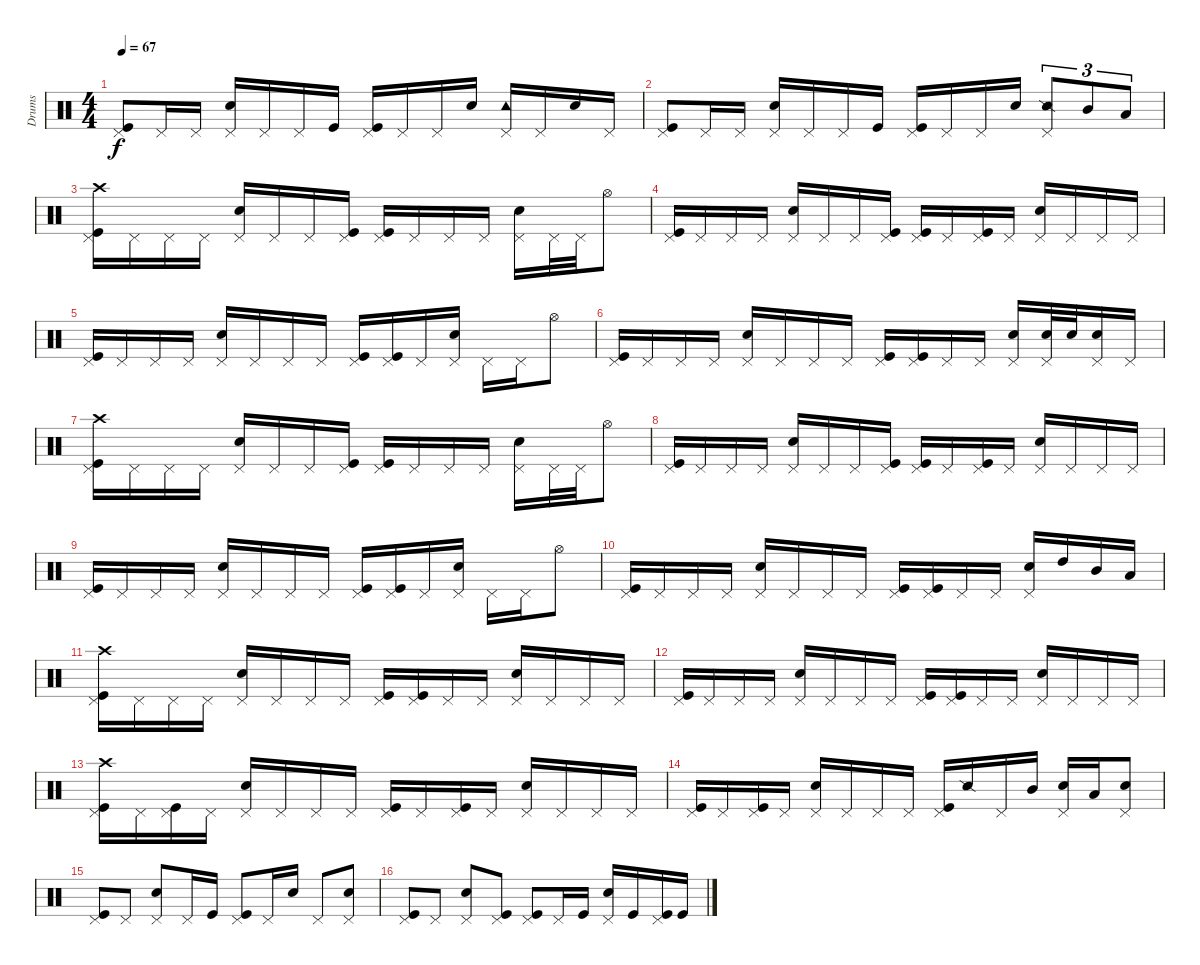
\track ("Drums" "Drums") {instrument percussion}
\staff {score}
\articulation defaults
\ts (4 4)
\tempo 67
\clef neutral
\ks c
("Kick (hit)" "Pedal Hi-Hat (hit)").8{dy f} "Pedal Hi-Hat (hit)".16 "Pedal Hi-Hat (hit)".16 ("Snare (hit) 2" "Pedal Hi-Hat (hit)").16 "Pedal Hi-Hat (hit)".16 "Pedal Hi-Hat (hit)".16 "Kick (hit)".16 ("Kick (hit)" "Pedal Hi-Hat (hit)").16 "Pedal Hi-Hat (hit)".16 "Pedal Hi-Hat (hit)".16 "Snare (hit) 2".16 ("Tambourine (hit)" "Pedal Hi-Hat (hit)").16 "Pedal Hi-Hat (hit)".16 "Snare (hit) 2".16 "Pedal Hi-Hat (hit)".16 |
("Kick (hit)" "Pedal Hi-Hat (hit)").8 "Pedal Hi-Hat (hit)".16 "Pedal Hi-Hat (hit)".16 ("Snare (hit) 2" "Pedal Hi-Hat (hit)").16 "Pedal Hi-Hat (hit)".16 "Pedal Hi-Hat (hit)".16 "Kick (hit)".16 ("Kick (hit)" "Pedal Hi-Hat (hit)").16 "Pedal Hi-Hat (hit)".16 "Pedal Hi-Hat (hit)".16 "Snare (hit) 2".16 ("Snare (side stick) 2" "Pedal Hi-Hat (hit)").8{tu (3 2)} "Mid Tom (hit)".8{tu (3 2)} "Low Tom (hit)".8{tu (3 2)} |
("Kick (hit)" "Pedal Hi-Hat (hit)" "Crash high (hit)").16 "Pedal Hi-Hat (hit)".16 "Pedal Hi-Hat (hit)".16 "Pedal Hi-Hat (hit)".16 ("Snare (hit) 2" "Pedal Hi-Hat (hit)").16 "Pedal Hi-Hat (hit)".16 "Pedal Hi-Hat (hit)".16 ("Kick (hit)" "Pedal Hi-Hat (hit)").16 ("Kick (hit)" "Pedal Hi-Hat (hit)").16 "Pedal Hi-Hat (hit)".16 "Pedal Hi-Hat (hit)".16 "Pedal Hi-Hat (hit)".16 ("Snare (hit) 2" "Pedal Hi-Hat (hit)").16 "Pedal Hi-Hat (hit)".32 "Pedal Hi-Hat (hit)".32 "Hi-Hat (open)".8 |
("Kick (hit)" "Pedal Hi-Hat (hit)").16 "Pedal Hi-Hat (hit)".16 "Pedal Hi-Hat (hit)".16 "Pedal Hi-Hat (hit)".16 ("Snare (hit) 2" "Pedal Hi-Hat (hit)").16 "Pedal Hi-Hat (hit)".16 "Pedal Hi-Hat (hit)".16 ("Kick (hit)" "Pedal Hi-Hat (hit)").16 ("Kick (hit)" "Pedal Hi-Hat (hit)").16 "Pedal Hi-Hat (hit)".16 ("Kick (hit)" "Pedal Hi-Hat (hit)").16 "Pedal Hi-Hat (hit)".16 ("Snare (hit) 2" "Pedal Hi-Hat (hit)").16 "Pedal Hi-Hat (hit)".16 "Pedal Hi-Hat (hit)".16 "Pedal Hi-Hat (hit)".16 |
("Kick (hit)" "Pedal Hi-Hat (hit)").16 "Pedal Hi-Hat (hit)".16 "Pedal Hi-Hat (hit)".16 "Pedal Hi-Hat (hit)".16 ("Snare (hit) 2" "Pedal Hi-Hat (hit)").16 "Pedal Hi-Hat (hit)".16 "Pedal Hi-Hat (hit)".16 "Pedal Hi-Hat (hit)".16 ("Kick (hit)" "Pedal Hi-Hat (hit)").16 ("Kick (hit)" "Pedal Hi-Hat (hit)").16 "Pedal Hi-Hat (hit)".16 ("Snare (hit) 2" "Pedal Hi-Hat (hit)").16 "Pedal Hi-Hat (hit)".16 "Pedal Hi-Hat (hit)".16 "Hi-Hat (open)".8 |
("Kick (hit)" "Pedal Hi-Hat (hit)").16 "Pedal Hi-Hat (hit)".16 "Pedal Hi-Hat (hit)".16 "Pedal Hi-Hat (hit)".16 ("Snare (hit) 2" "Pedal Hi-Hat (hit)").16 "Pedal Hi-Hat (hit)".16 "Pedal Hi-Hat (hit)".16 "Pedal Hi-Hat (hit)".16 ("Kick (hit)" "Pedal Hi-Hat (hit)").16 ("Kick (hit)" "Pedal Hi-Hat (hit)").16 "Pedal Hi-Hat (hit)".16 "Pedal Hi-Hat (hit)".16 ("Snare (hit) 2" "Pedal Hi-Hat (hit)").16 ("Snare (hit) 2" "Pedal Hi-Hat (hit)").32 "Snare (hit) 2".32 ("Snare (hit) 2" "Pedal Hi-Hat (hit)").16 "Pedal Hi-Hat (hit)".16 |
("Kick (hit)" "Pedal Hi-Hat (hit)" "Crash high (hit)").16 "Pedal Hi-Hat (hit)".16 "Pedal Hi-Hat (hit)".16 "Pedal Hi-Hat (hit)".16 ("Snare (hit) 2" "Pedal Hi-Hat (hit)").16 "Pedal Hi-Hat (hit)".16 "Pedal Hi-Hat (hit)".16 ("Kick (hit)" "Pedal Hi-Hat (hit)").16 ("Kick (hit)" "Pedal Hi-Hat (hit)").16 "Pedal Hi-Hat (hit)".16 "Pedal Hi-Hat (hit)".16 "Pedal Hi-Hat (hit)".16 ("Snare (hit) 2" "Pedal Hi-Hat (hit)").16 "Pedal Hi-Hat (hit)".32 "Pedal Hi-Hat (hit)".32 "Hi-Hat (open)".8 |
("Kick (hit)" "Pedal Hi-Hat (hit)").16 "Pedal Hi-Hat (hit)".16 "Pedal Hi-Hat (hit)".16 "Pedal Hi-Hat (hit)".16 ("Snare (hit) 2" "Pedal Hi-Hat (hit)").16 "Pedal Hi-Hat (hit)".16 "Pedal Hi-Hat (hit)".16 ("Kick (hit)" "Pedal Hi-Hat (hit)").16 ("Kick (hit)" "Pedal Hi-Hat (hit)").16 "Pedal Hi-Hat (hit)".16 ("Kick (hit)" "Pedal Hi-Hat (hit)").16 "Pedal Hi-Hat (hit)".16 ("Snare (hit) 2" "Pedal Hi-Hat (hit)").16 "Pedal Hi-Hat (hit)".16 "Pedal Hi-Hat (hit)".16 "Pedal Hi-Hat (hit)".16 |
("Kick (hit)" "Pedal Hi-Hat (hit)").16 "Pedal Hi-Hat (hit)".16 "Pedal Hi-Hat (hit)".16 "Pedal Hi-Hat (hit)".16 ("Snare (hit) 2" "Pedal Hi-Hat (hit)").16 "Pedal Hi-Hat (hit)".16 "Pedal Hi-Hat (hit)".16 "Pedal Hi-Hat (hit)".16 ("Kick (hit)" "Pedal Hi-Hat (hit)").16 ("Kick (hit)" "Pedal Hi-Hat (hit)").16 "Pedal Hi-Hat (hit)".16 ("Snare (hit) 2" "Pedal Hi-Hat (hit)").16 "Pedal Hi-Hat (hit)".16 "Pedal Hi-Hat (hit)".16 "Hi-Hat (open)".8 |
("Kick (hit)" "Pedal Hi-Hat (hit)").16 "Pedal Hi-Hat (hit)".16 "Pedal Hi-Hat (hit)".16 "Pedal Hi-Hat (hit)".16 ("Snare (hit) 2" "Pedal Hi-Hat (hit)").16 "Pedal Hi-Hat (hit)".16 "Pedal Hi-Hat (hit)".16 "Pedal Hi-Hat (hit)".16 ("Kick (hit)" "Pedal Hi-Hat (hit)").16 ("Kick (hit)" "Pedal Hi-Hat (hit)").16 "Pedal Hi-Hat (hit)".16 "Pedal Hi-Hat (hit)".16 ("Snare (hit) 2" "Pedal Hi-Hat (hit)").16 "High Tom (hit)".16 "Mid Tom (hit)".16 "Low Tom (hit)".16 |
("Kick (hit)" "Pedal Hi-Hat (hit)" "Crash high (hit)").16 "Pedal Hi-Hat (hit)".16 "Pedal Hi-Hat (hit)".16 "Pedal Hi-Hat (hit)".16 ("Snare (hit) 2" "Pedal Hi-Hat (hit)").16 "Pedal Hi-Hat (hit)".16 "Pedal Hi-Hat (hit)".16 "Pedal Hi-Hat (hit)".16 ("Kick (hit)" "Pedal Hi-Hat (hit)").16 ("Kick (hit)" "Pedal Hi-Hat (hit)").16 "Pedal Hi-Hat (hit)".16 "Pedal Hi-Hat (hit)".16 ("Snare (hit) 2" "Pedal Hi-Hat (hit)").16 "Pedal Hi-Hat (hit)".16 "Pedal Hi-Hat (hit)".16 "Pedal Hi-Hat (hit)".16 |
("Kick (hit)" "Pedal Hi-Hat (hit)").16 "Pedal Hi-Hat (hit)".16 "Pedal Hi-Hat (hit)".16 "Pedal Hi-Hat (hit)".16 ("Snare (hit) 2" "Pedal Hi-Hat (hit)").16 "Pedal Hi-Hat (hit)".16 "Pedal Hi-Hat (hit)".16 "Pedal Hi-Hat (hit)".16 ("Kick (hit)" "Pedal Hi-Hat (hit)").16 ("Kick (hit)" "Pedal Hi-Hat (hit)").16 "Pedal Hi-Hat (hit)".16 "Pedal Hi-Hat (hit)".16 ("Snare (hit) 2" "Pedal Hi-Hat (hit)").16 "Pedal Hi-Hat (hit)".16 "Pedal Hi-Hat (hit)".16 "Pedal Hi-Hat (hit)".16 |
("Kick (hit)" "Pedal Hi-Hat (hit)" "Crash high (hit)").16 "Pedal Hi-Hat (hit)".16 ("Kick (hit)" "Pedal Hi-Hat (hit)").16 "Pedal Hi-Hat (hit)".16 ("Snare (hit) 2" "Pedal Hi-Hat (hit)").16 "Pedal Hi-Hat (hit)".16 "Pedal Hi-Hat (hit)".16 "Pedal Hi-Hat (hit)".16 ("Kick (hit)" "Pedal Hi-Hat (hit)").16 "Pedal Hi-Hat (hit)".16 ("Kick (hit)" "Pedal Hi-Hat (hit)").16 "Pedal Hi-Hat (hit)".16 ("Snare (hit) 2" "Pedal Hi-Hat (hit)").16 "Pedal Hi-Hat (hit)".16 "Pedal Hi-Hat (hit)".16 "Pedal Hi-Hat (hit)".16 |
("Kick (hit)" "Pedal Hi-Hat (hit)").16 "Pedal Hi-Hat (hit)".16 ("Kick (hit)" "Pedal Hi-Hat (hit)").16 "Pedal Hi-Hat (hit)".16 ("Snare (hit) 2" "Pedal Hi-Hat (hit)").16 "Pedal Hi-Hat (hit)".16 "Pedal Hi-Hat (hit)".16 "Pedal Hi-Hat (hit)".16 ("Kick (hit)" "Pedal Hi-Hat (hit)").16 "Snare (side stick) 2".16 "Pedal Hi-Hat (hit)".16 "Mid Tom (hit)".16 ("Snare (hit) 2" "Pedal Hi-Hat (hit)").16 "Low Tom (hit)".16 ("Snare (hit) 2" "Pedal Hi-Hat (hit)").8 |
("Kick (hit)" "Pedal Hi-Hat (hit)").8 "Pedal Hi-Hat (hit)".8 ("Snare (hit) 2" "Pedal Hi-Hat (hit)").8 "Pedal Hi-Hat (hit)".16 "Kick (hit)".16 ("Kick (hit)" "Pedal Hi-Hat (hit)").8 "Pedal Hi-Hat (hit)".16 "Snare (hit) 2".16 "Pedal Hi-Hat (hit)".8 ("Snare (hit) 2" "Pedal Hi-Hat (hit)").8 |
("Kick (hit)" "Pedal Hi-Hat (hit)").8 "Pedal Hi-Hat (hit)".8 ("Snare (hit) 2" "Pedal Hi-Hat (hit)").8 ("Kick (hit)" "Pedal Hi-Hat (hit)").8 ("Kick (hit)" "Pedal Hi-Hat (hit)").8 "Pedal Hi-Hat (hit)".16 "Kick (hit)".16 ("Snare (hit) 2" "Pedal Hi-Hat (hit)").16 "Kick (hit)".16 ("Kick (hit)" "Pedal Hi-Hat (hit)").16 "Kick (hit)".16
